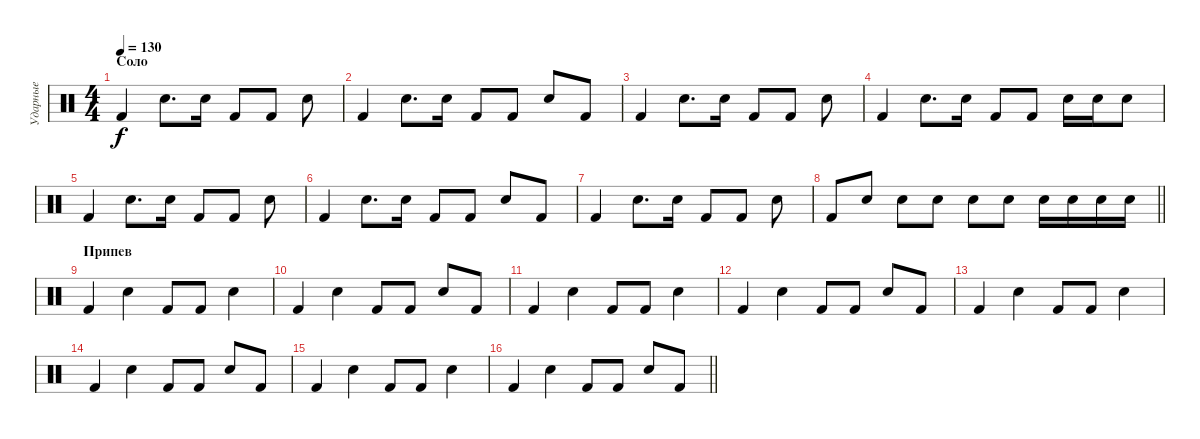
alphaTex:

\track ("Ударные" "Ударные") {instrument percussion}
\staff {score}
\articulation defaults
\ts (4 4)
\section ("" "Соло")
\tempo 130
\clef neutral
\ks c "Kick (hit) 2".4{dy f} "Electric Snare (hit)".8{d} "Electric Snare (hit)".16 "Kick (hit) 2".8 "Kick (hit) 2".8 "Electric Snare (hit)".8
|
"Kick (hit) 2".4 "Electric Snare (hit)".8{d} "Electric Snare (hit)".16 "Kick (hit) 2".8 "Kick (hit) 2".8 "Electric Snare (hit)".8 "Kick (hit) 2".8 |
"Kick (hit) 2".4 "Electric Snare (hit)".8{d} "Electric Snare (hit)".16 "Kick (hit) 2".8 "Kick (hit) 2".8 "Electric Snare (hit)".8 |
"Kick (hit) 2".4 "Electric Snare (hit)".8{d} "Electric Snare (hit)".16 "Kick (hit) 2".8 "Kick (hit) 2".8 "Electric Snare (hit)".16 "Electric Snare (hit)".16 "Electric Snare (hit)".8 |
"Kick (hit) 2".4 "Electric Snare (hit)".8{d} "Electric Snare (hit)".16 "Kick (hit) 2".8 "Kick (hit) 2".8 "Electric Snare (hit)".8 |
"Kick (hit) 2".4 "Electric Snare (hit)".8{d} "Electric Snare (hit)".16 "Kick (hit) 2".8 "Kick (hit) 2".8 "Electric Snare (hit)".8 "Kick (hit) 2".8 |
"Kick (hit) 2".4 "Electric Snare (hit)".8{d} "Electric Snare (hit)".16 "Kick (hit) 2".8 "Kick (hit) 2".8 "Electric Snare (hit)".8 |
\barLineRight lightlight "Kick (hit) 2".8 "Electric Snare (hit)".8 "Electric Snare (hit)".8 "Electric Snare (hit)".8 "Electric Snare (hit)".8 "Electric Snare (hit)".8 "Electric Snare (hit)".16 "Electric Snare (hit)".16 "Electric Snare (hit)".16 "Electric Snare (hit)".16
|
\section ("" "Припев")
"Kick (hit) 2".4 "Electric Snare (hit)".4 "Kick (hit) 2".8 "Kick (hit) 2".8 "Electric Snare (hit)".4 |
"Kick (hit) 2".4 "Electric Snare (hit)".4 "Kick (hit) 2".8 "Kick (hit) 2".8 "Electric Snare (hit)".8 "Kick (hit) 2".8 |
"Kick (hit) 2".4 "Electric Snare (hit)".4 "Kick (hit) 2".8 "Kick (hit) 2".8 "Electric Snare (hit)".4 |
"Kick (hit) 2".4 "Electric Snare (hit)".4 "Kick (hit) 2".8 "Kick (hit) 2".8 "Electric Snare (hit)".8 "Kick (hit) 2".8 |
"Kick (hit) 2".4 "Electric Snare (hit)".4 "Kick (hit) 2".8 "Kick (hit) 2".8 "Electric Snare (hit)".4 |
"Kick (hit) 2".4 "Electric Snare (hit)".4 "Kick (hit) 2".8 "Kick (hit) 2".8 "Electric Snare (hit)".8 "Kick (hit) 2".8 |
"Kick (hit) 2".4 "Electric Snare (hit)".4 "Kick (hit) 2".8 "Kick (hit) 2".8 "Electric Snare (hit)".4 |
\barLineRight lightlight "Kick (hit) 2".4 "Electric Snare (hit)".4 "Kick (hit) 2".8 "Kick (hit) 2".8 "Electric Snare (hit)".8 "Kick (hit) 2".8
